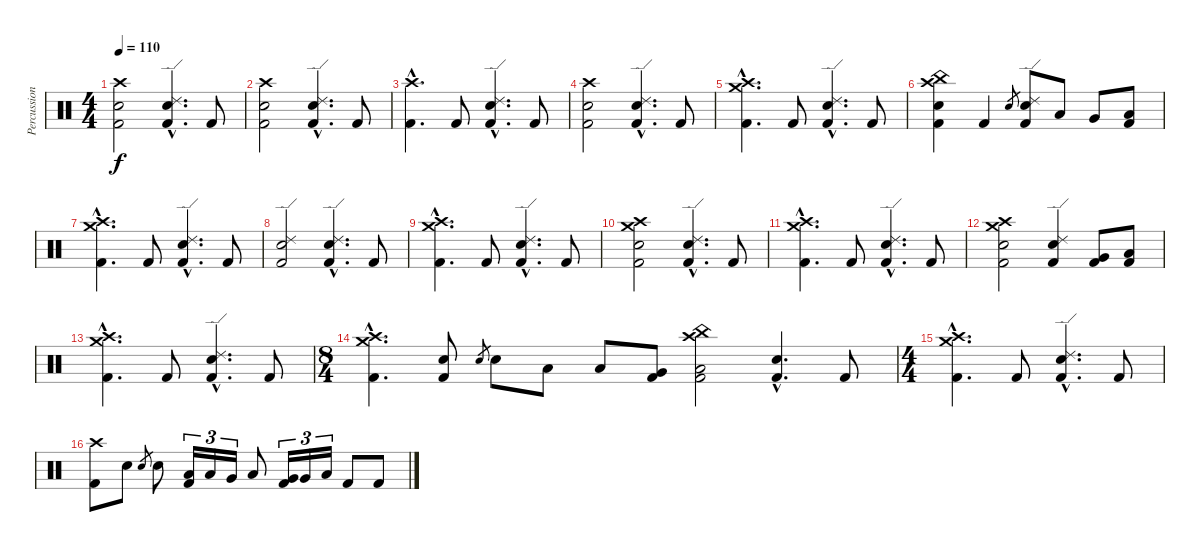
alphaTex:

\track ("Percussion" "Percussion") {instrument percussion}
\staff {score}
\articulation defaults
\ts (4 4)
\tempo 110
\clef neutral
\ks c
("Crash high (hit)" "Snare (hit) 2" "Kick (hit) 2").2{dy f} ("Ride (edge) 2"{hac} "Electric Snare (hit)"{hac} "Kick (hit) 2"{hac}).4{d} "Kick (hit) 2".8 |
("Crash high (hit)" "Snare (hit) 2" "Kick (hit) 2").2 ("Ride (edge) 2"{hac} "Electric Snare (hit)"{hac} "Kick (hit) 2"{hac}).4{d} "Kick (hit) 2".8 |
("Crash high (hit)"{hac} "Kick (hit) 2"{hac}).4{d} "Kick (hit) 2".8 ("Ride (edge) 2"{hac} "Electric Snare (hit)"{hac} "Kick (hit) 2"{hac}).4{d} "Kick (hit) 2".8 |
("Crash high (hit)" "Snare (hit) 2" "Kick (hit) 2").2 ("Ride (edge) 2"{hac} "Electric Snare (hit)"{hac} "Kick (hit) 2"{hac}).4{d} "Kick (hit) 2".8 |
("Crash high (hit)"{hac} "Crash medium (hit)"{hac} "Kick (hit) 2"{hac}).4{d} "Kick (hit) 2".8 ("Ride (edge) 2"{hac} "Electric Snare (hit)"{hac} "Kick (hit) 2"{hac}).4{d} "Kick (hit) 2".8 |
("Crash high (hit)" "China (hit)" "Snare (hit) 2" "Kick (hit) 2").4 "Kick (hit) 2".4 "Electric Snare (hit)".8{gr} ("Ride (edge) 2" "Electric Snare (hit)" "Kick (hit) 2").8 "Low Tom (hit)".8 "Very Low Tom (hit)".8 ("Low Floor Tom (hit)" "Kick (hit) 2").8 |
("Crash high (hit)"{hac} "Crash medium (hit)"{hac} "Kick (hit) 2"{hac}).4{d} "Kick (hit) 2".8 ("Ride (edge) 2"{hac} "Electric Snare (hit)"{hac} "Kick (hit) 2"{hac}).4{d} "Kick (hit) 2".8 |
("Ride (edge) 2" "Electric Snare (hit)" "Kick (hit) 2").2 ("Ride (edge) 2"{hac} "Electric Snare (hit)"{hac} "Kick (hit) 2"{hac}).4{d} "Kick (hit) 2".8 |
("Crash high (hit)"{hac} "Crash medium (hit)"{hac} "Kick (hit) 2"{hac}).4{d} "Kick (hit) 2".8 ("Ride (edge) 2"{hac} "Electric Snare (hit)"{hac} "Kick (hit) 2"{hac}).4{d} "Kick (hit) 2".8 |
("Crash high (hit)" "Crash medium (hit)" "Snare (hit) 2" "Kick (hit) 2").2 ("Ride (edge) 2"{hac} "Electric Snare (hit)"{hac} "Kick (hit) 2"{hac}).4{d} "Kick (hit) 2".8 |
("Crash high (hit)"{hac} "Crash medium (hit)"{hac} "Kick (hit) 2"{hac}).4{d} "Kick (hit) 2".8 ("Ride (edge) 2"{hac} "Electric Snare (hit)"{hac} "Kick (hit) 2"{hac}).4{d} "Kick (hit) 2".8 |
("Crash high (hit)" "Crash medium (hit)" "Snare (hit) 2" "Kick (hit) 2").2 ("Ride (edge) 2" "Electric Snare (hit)" "Kick (hit) 2").4 ("Very Low Tom (hit)" "Kick (hit) 2").8 ("Low Floor Tom (hit)" "Kick (hit) 2").8 |
("Crash high (hit)"{hac} "Crash medium (hit)"{hac} "Kick (hit) 2"{hac}).4{d} "Kick (hit) 2".8 ("Ride (edge) 2"{hac} "Electric Snare (hit)"{hac} "Kick (hit) 2"{hac}).4{d} "Kick (hit) 2".8 |
\ts (8 4)
("Crash high (hit)"{hac} "Crash medium (hit)"{hac} "Kick (hit) 2"{hac}).4{d} ("Electric Snare (hit)" "Kick (hit) 2").8 "Electric Snare (hit)".8{gr} "Electric Snare (hit)".8 "Low Tom (hit)".8 "Low Tom (hit)".8 ("Very Low Tom (hit)" "Kick (hit) 2").8 ("Crash high (hit)" "China (hit)" "Low Floor Tom (hit)" "Kick (hit) 2").2 ("Electric Snare (hit)"{hac} "Kick (hit) 2"{hac}).4{d} "Kick (hit) 2".8 |
\ts (4 4)
("Crash high (hit)"{hac} "Crash medium (hit)"{hac} "Kick (hit) 2"{hac}).4{d} "Kick (hit) 2".8 ("Ride (edge) 2"{hac} "Electric Snare (hit)"{hac} "Kick (hit) 2"{hac}).4{d} "Kick (hit) 2".8 |
("Crash high (hit)" "Kick (hit) 2").8 "Electric Snare (hit)".8 "Electric Snare (hit)".8{gr} "Electric Snare (hit)".8 ("Low Tom (hit)" "Kick (hit) 2").16{tu (3 2)} "Low Tom (hit)".16{tu (3 2)} "Very Low Tom (hit)".16{tu (3 2)} "Low Floor Tom (hit)".8 ("Very Low Tom (hit)" "Kick (hit) 2").16{tu (3 2)} "Very Low Tom (hit)".16{tu (3 2)} "Low Floor Tom (hit)".16{tu (3 2)} "Kick (hit) 2".8 "Kick (hit) 2".8
